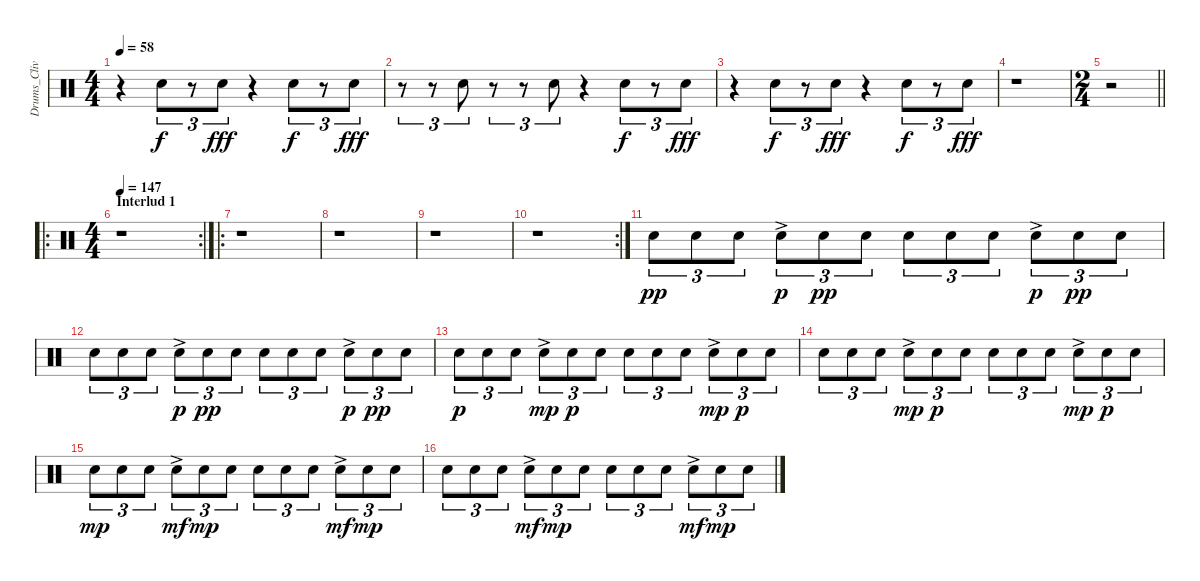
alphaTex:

\track ("Drums_CliveBurr" "Drums_Cliv") {instrument percussion}
\staff {score}
\articulation defaults
\ts (4 4)
\tempo 58
\clef neutral
\ks c
r.4{dy f} "Snare (hit) 2".8{tu (3 2)} r.8{tu (3 2)} "Snare (hit) 2".8{tu (3 2) dy fff} r.4 "Snare (hit) 2".8{tu (3 2) dy f} r.8{tu (3 2)} "Snare (hit) 2".8{tu (3 2) dy fff} |
r.8{tu (3 2)} r.8{tu (3 2)} "Snare (hit) 2".8{tu (3 2)} r.8{tu (3 2)} r.8{tu (3 2)} "Snare (hit) 2".8{tu (3 2)} r.4 "Snare (hit) 2".8{tu (3 2) dy f} r.8{tu (3 2)} "Snare (hit) 2".8{tu (3 2) dy fff} |
r.4 "Snare (hit) 2".8{tu (3 2) dy f} r.8{tu (3 2)} "Snare (hit) 2".8{tu (3 2) dy fff} r.4 "Snare (hit) 2".8{tu (3 2) dy f} r.8{tu (3 2)} "Snare (hit) 2".8{tu (3 2) dy fff} |
r.1 |
\ts (2 4)
\barLineRight lightlight
r.2 |
\ro
\rc 2
\ts (4 4)
\section ("" "Interlud 1")
\tempo 147
r.1 |
\ro
r.1 |
r.1 |
r.1 |
\rc 2
r.1 |
"Snare (hit) 2".8{tu (3 2) dy pp} "Snare (hit) 2".8{tu (3 2)} "Snare (hit) 2".8{tu (3 2)} "Snare (hit) 2"{ac}.8{tu (3 2) dy p} "Snare (hit) 2".8{tu (3 2) dy pp} "Snare (hit) 2".8{tu (3 2)} "Snare (hit) 2".8{tu (3 2)} "Snare (hit) 2".8{tu (3 2)} "Snare (hit) 2".8{tu (3 2)} "Snare (hit) 2"{ac}.8{tu (3 2) dy p} "Snare (hit) 2".8{tu (3 2) dy pp} "Snare (hit) 2".8{tu (3 2)} |
"Snare (hit) 2".8{tu (3 2)} "Snare (hit) 2".8{tu (3 2)} "Snare (hit) 2".8{tu (3 2)} "Snare (hit) 2"{ac}.8{tu (3 2) dy p} "Snare (hit) 2".8{tu (3 2) dy pp} "Snare (hit) 2".8{tu (3 2)} "Snare (hit) 2".8{tu (3 2)} "Snare (hit) 2".8{tu (3 2)} "Snare (hit) 2".8{tu (3 2)} "Snare (hit) 2"{ac}.8{tu (3 2) dy p} "Snare (hit) 2".8{tu (3 2) dy pp} "Snare (hit) 2".8{tu (3 2)} |
"Snare (hit) 2".8{tu (3 2) dy p} "Snare (hit) 2".8{tu (3 2)} "Snare (hit) 2".8{tu (3 2)} "Snare (hit) 2"{ac}.8{tu (3 2) dy mp} "Snare (hit) 2".8{tu (3 2) dy p} "Snare (hit) 2".8{tu (3 2)} "Snare (hit) 2".8{tu (3 2)} "Snare (hit) 2".8{tu (3 2)} "Snare (hit) 2".8{tu (3 2)} "Snare (hit) 2"{ac}.8{tu (3 2) dy mp} "Snare (hit) 2".8{tu (3 2) dy p} "Snare (hit) 2".8{tu (3 2)} |
"Snare (hit) 2".8{tu (3 2)} "Snare (hit) 2".8{tu (3 2)} "Snare (hit) 2".8{tu (3 2)} "Snare (hit) 2"{ac}.8{tu (3 2) dy mp} "Snare (hit) 2".8{tu (3 2) dy p} "Snare (hit) 2".8{tu (3 2)} "Snare (hit) 2".8{tu (3 2)} "Snare (hit) 2".8{tu (3 2)} "Snare (hit) 2".8{tu (3 2)} "Snare (hit) 2"{ac}.8{tu (3 2) dy mp} "Snare (hit) 2".8{tu (3 2) dy p} "Snare (hit) 2".8{tu (3 2)} |
"Snare (hit) 2".8{tu (3 2) dy mp} "Snare (hit) 2".8{tu (3 2)} "Snare (hit) 2".8{tu (3 2)} "Snare (hit) 2"{ac}.8{tu (3 2) dy mf} "Snare (hit) 2".8{tu (3 2) dy mp} "Snare (hit) 2".8{tu (3 2)} "Snare (hit) 2".8{tu (3 2)} "Snare (hit) 2".8{tu (3 2)} "Snare (hit) 2".8{tu (3 2)} "Snare (hit) 2"{ac}.8{tu (3 2) dy mf} "Snare (hit) 2".8{tu (3 2) dy mp} "Snare (hit) 2".8{tu (3 2)} |
"Snare (hit) 2".8{tu (3 2)} "Snare (hit) 2".8{tu (3 2)} "Snare (hit) 2".8{tu (3 2)} "Snare (hit) 2"{ac}.8{tu (3 2) dy mf} "Snare (hit) 2".8{tu (3 2) dy mp} "Snare (hit) 2".8{tu (3 2)} "Snare (hit) 2".8{tu (3 2)} "Snare (hit) 2".8{tu (3 2)} "Snare (hit) 2".8{tu (3 2)} "Snare (hit) 2"{ac}.8{tu (3 2) dy mf} "Snare (hit) 2".8{tu (3 2) dy mp} "Snare (hit) 2".8{tu (3 2)}
